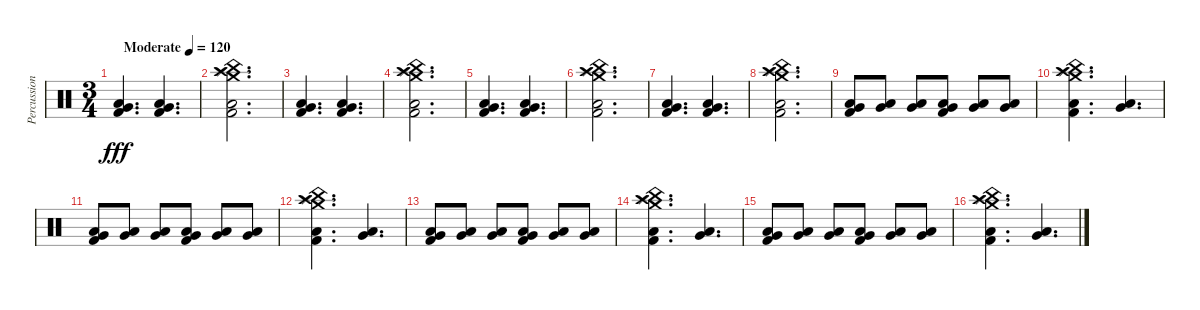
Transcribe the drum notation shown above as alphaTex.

\track ("Percussion" "Percussion") {instrument percussion}
\staff
\articulation defaults
\ts (3 4)
\tempo (120 "Moderate")
\clef neutral
\ks c
("Very Low Tom (hit)" "Low Floor Tom (hit)" "Kick (hit) 2").4{d dy fff} ("Very Low Tom (hit)" "Low Floor Tom (hit)" "Kick (hit) 2").4{d} |
("China (hit)" "Splash (hit)" "Crash high (hit)" "Crash medium (hit)" "Low Floor Tom (hit)" "Kick (hit) 2").2{d} |
("Very Low Tom (hit)" "Low Floor Tom (hit)" "Kick (hit) 2").4{d} ("Very Low Tom (hit)" "Low Floor Tom (hit)" "Kick (hit) 2").4{d} |
("China (hit)" "Splash (hit)" "Crash high (hit)" "Crash medium (hit)" "Low Floor Tom (hit)" "Kick (hit) 2").2{d} |
("Very Low Tom (hit)" "Low Floor Tom (hit)" "Kick (hit) 2").4{d} ("Very Low Tom (hit)" "Low Floor Tom (hit)" "Kick (hit) 2").4{d} |
("China (hit)" "Splash (hit)" "Crash high (hit)" "Crash medium (hit)" "Low Floor Tom (hit)" "Kick (hit) 2").2{d} |
("Very Low Tom (hit)" "Low Floor Tom (hit)" "Kick (hit) 2").4{d} ("Very Low Tom (hit)" "Low Floor Tom (hit)" "Kick (hit) 2").4{d} |
("China (hit)" "Splash (hit)" "Crash high (hit)" "Crash medium (hit)" "Low Floor Tom (hit)" "Kick (hit) 2").2{d} |
("Very Low Tom (hit)" "Low Floor Tom (hit)" "Kick (hit) 2").8 ("Low Floor Tom (hit)" "Very Low Tom (hit)").8 ("Very Low Tom (hit)" "Low Floor Tom (hit)").8 ("Very Low Tom (hit)" "Low Floor Tom (hit)" "Kick (hit) 2").8 ("Very Low Tom (hit)" "Low Floor Tom (hit)").8 ("Very Low Tom (hit)" "Low Floor Tom (hit)").8 |
("China (hit)" "Splash (hit)" "Crash high (hit)" "Crash medium (hit)" "Low Floor Tom (hit)" "Kick (hit) 2").4{d} ("Very Low Tom (hit)" "Low Floor Tom (hit)").4{d} |
("Very Low Tom (hit)" "Low Floor Tom (hit)" "Kick (hit) 2").8 ("Low Floor Tom (hit)" "Very Low Tom (hit)").8 ("Very Low Tom (hit)" "Low Floor Tom (hit)").8 ("Very Low Tom (hit)" "Low Floor Tom (hit)" "Kick (hit) 2").8 ("Very Low Tom (hit)" "Low Floor Tom (hit)").8 ("Very Low Tom (hit)" "Low Floor Tom (hit)").8 |
("China (hit)" "Splash (hit)" "Crash high (hit)" "Crash medium (hit)" "Low Floor Tom (hit)" "Kick (hit) 2").4{d} ("Very Low Tom (hit)" "Low Floor Tom (hit)").4{d} |
("Very Low Tom (hit)" "Low Floor Tom (hit)" "Kick (hit) 2").8 ("Low Floor Tom (hit)" "Very Low Tom (hit)").8 ("Very Low Tom (hit)" "Low Floor Tom (hit)").8 ("Very Low Tom (hit)" "Low Floor Tom (hit)" "Kick (hit) 2").8 ("Very Low Tom (hit)" "Low Floor Tom (hit)").8 ("Very Low Tom (hit)" "Low Floor Tom (hit)").8 |
("China (hit)" "Splash (hit)" "Crash high (hit)" "Crash medium (hit)" "Low Floor Tom (hit)" "Kick (hit) 2").4{d} ("Very Low Tom (hit)" "Low Floor Tom (hit)").4{d} |
("Very Low Tom (hit)" "Low Floor Tom (hit)" "Kick (hit) 2").8 ("Low Floor Tom (hit)" "Very Low Tom (hit)").8 ("Very Low Tom (hit)" "Low Floor Tom (hit)").8 ("Very Low Tom (hit)" "Low Floor Tom (hit)" "Kick (hit) 2").8 ("Very Low Tom (hit)" "Low Floor Tom (hit)").8 ("Very Low Tom (hit)" "Low Floor Tom (hit)").8 |
("China (hit)" "Splash (hit)" "Crash high (hit)" "Crash medium (hit)" "Low Floor Tom (hit)" "Kick (hit) 2").4{d} ("Very Low Tom (hit)" "Low Floor Tom (hit)").4{d}
